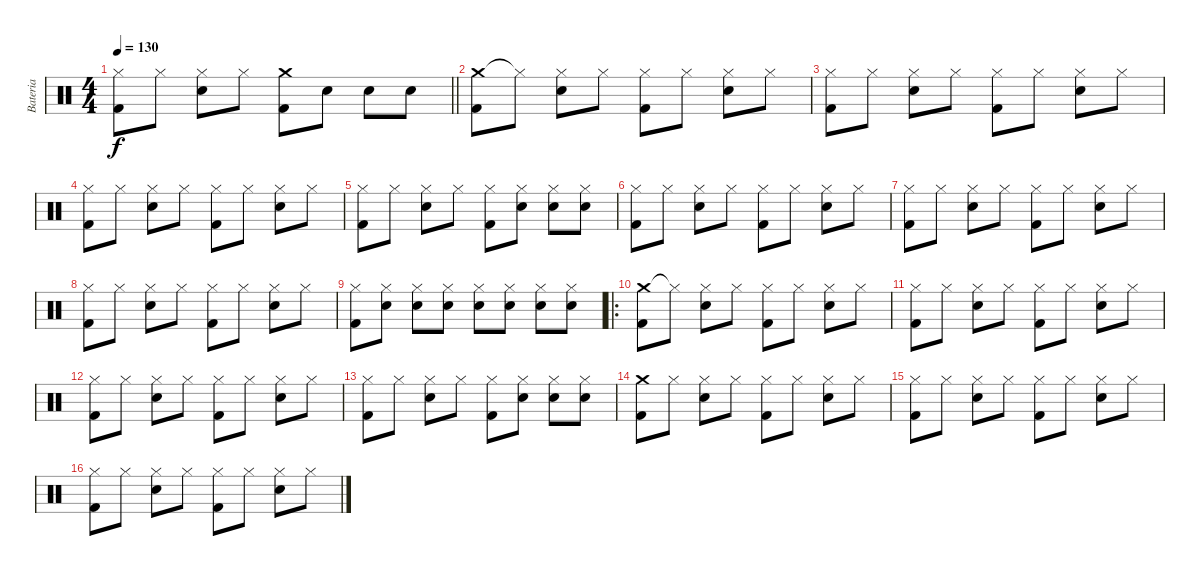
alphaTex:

\track ("Bateria" "Bateria") {instrument percussion}
\staff {score}
\articulation defaults
\ts (4 4)
\tempo 130
\clef neutral
\barLineRight lightlight
\ks c
("Hi-Hat (closed)" "Kick (hit) 2").8{dy f} "Hi-Hat (closed)".8 ("Hi-Hat (closed)" "Snare (hit) 2").8 "Hi-Hat (closed)".8 ("Crash medium (hit)" "Kick (hit) 2").8 "Snare (hit) 2".8 "Snare (hit) 2".8 "Snare (hit) 2".8 |
("Crash medium (hit)" "Kick (hit) 2").8 "Hi-Hat (closed)"{t}.8 ("Hi-Hat (closed)" "Snare (hit) 2").8 "Hi-Hat (closed)".8 ("Hi-Hat (closed)" "Kick (hit) 2").8 "Hi-Hat (closed)".8 ("Hi-Hat (closed)" "Snare (hit) 2").8 "Hi-Hat (closed)".8 |
("Hi-Hat (closed)" "Kick (hit) 2").8 "Hi-Hat (closed)".8 ("Hi-Hat (closed)" "Snare (hit) 2").8 "Hi-Hat (closed)".8 ("Hi-Hat (closed)" "Kick (hit) 2").8 "Hi-Hat (closed)".8 ("Hi-Hat (closed)" "Snare (hit) 2").8 "Hi-Hat (closed)".8 |
("Hi-Hat (closed)" "Kick (hit) 2").8 "Hi-Hat (closed)".8 ("Hi-Hat (closed)" "Snare (hit) 2").8 "Hi-Hat (closed)".8 ("Hi-Hat (closed)" "Kick (hit) 2").8 "Hi-Hat (closed)".8 ("Hi-Hat (closed)" "Snare (hit) 2").8 "Hi-Hat (closed)".8 |
("Hi-Hat (closed)" "Kick (hit) 2").8 "Hi-Hat (closed)".8 ("Hi-Hat (closed)" "Snare (hit) 2").8 "Hi-Hat (closed)".8 ("Hi-Hat (closed)" "Kick (hit) 2").8 ("Hi-Hat (closed)" "Snare (hit) 2").8 ("Hi-Hat (closed)" "Snare (hit) 2").8 ("Hi-Hat (closed)" "Snare (hit) 2").8 |
("Hi-Hat (closed)" "Kick (hit) 2").8 "Hi-Hat (closed)".8 ("Hi-Hat (closed)" "Snare (hit) 2").8 "Hi-Hat (closed)".8 ("Hi-Hat (closed)" "Kick (hit) 2").8 "Hi-Hat (closed)".8 ("Hi-Hat (closed)" "Snare (hit) 2").8 "Hi-Hat (closed)".8 |
("Hi-Hat (closed)" "Kick (hit) 2").8 "Hi-Hat (closed)".8 ("Hi-Hat (closed)" "Snare (hit) 2").8 "Hi-Hat (closed)".8 ("Hi-Hat (closed)" "Kick (hit) 2").8 "Hi-Hat (closed)".8 ("Hi-Hat (closed)" "Snare (hit) 2").8 "Hi-Hat (closed)".8 |
("Hi-Hat (closed)" "Kick (hit) 2").8 "Hi-Hat (closed)".8 ("Hi-Hat (closed)" "Snare (hit) 2").8 "Hi-Hat (closed)".8 ("Hi-Hat (closed)" "Kick (hit) 2").8 "Hi-Hat (closed)".8 ("Hi-Hat (closed)" "Snare (hit) 2").8 "Hi-Hat (closed)".8 |
("Hi-Hat (closed)" "Kick (hit) 2").8 ("Hi-Hat (closed)" "Snare (hit) 2").8 ("Hi-Hat (closed)" "Snare (hit) 2").8 ("Hi-Hat (closed)" "Snare (hit) 2").8 ("Hi-Hat (closed)" "Snare (hit) 2").8 ("Hi-Hat (closed)" "Snare (hit) 2").8 ("Hi-Hat (closed)" "Snare (hit) 2").8 ("Hi-Hat (closed)" "Snare (hit) 2").8 |
\ro
("Crash medium (hit)" "Kick (hit) 2").8 "Hi-Hat (closed)"{t}.8 ("Hi-Hat (closed)" "Snare (hit) 2").8 "Hi-Hat (closed)".8 ("Hi-Hat (closed)" "Kick (hit) 2").8 "Hi-Hat (closed)".8 ("Hi-Hat (closed)" "Snare (hit) 2").8 "Hi-Hat (closed)".8 |
("Hi-Hat (closed)" "Kick (hit) 2").8 "Hi-Hat (closed)".8 ("Hi-Hat (closed)" "Snare (hit) 2").8 "Hi-Hat (closed)".8 ("Hi-Hat (closed)" "Kick (hit) 2").8 "Hi-Hat (closed)".8 ("Hi-Hat (closed)" "Snare (hit) 2").8 "Hi-Hat (closed)".8 |
("Hi-Hat (closed)" "Kick (hit) 2").8 "Hi-Hat (closed)".8 ("Hi-Hat (closed)" "Snare (hit) 2").8 "Hi-Hat (closed)".8 ("Hi-Hat (closed)" "Kick (hit) 2").8 "Hi-Hat (closed)".8 ("Hi-Hat (closed)" "Snare (hit) 2").8 "Hi-Hat (closed)".8 |
("Hi-Hat (closed)" "Kick (hit) 2").8 "Hi-Hat (closed)".8 ("Hi-Hat (closed)" "Snare (hit) 2").8 "Hi-Hat (closed)".8 ("Hi-Hat (closed)" "Kick (hit) 2").8 ("Hi-Hat (closed)" "Snare (hit) 2").8 ("Hi-Hat (closed)" "Snare (hit) 2").8 ("Hi-Hat (closed)" "Snare (hit) 2").8 |
("Crash medium (hit)" "Kick (hit) 2").8 "Hi-Hat (closed)".8 ("Hi-Hat (closed)" "Snare (hit) 2").8 "Hi-Hat (closed)".8 ("Hi-Hat (closed)" "Kick (hit) 2").8 "Hi-Hat (closed)".8 ("Hi-Hat (closed)" "Snare (hit) 2").8 "Hi-Hat (closed)".8 |
("Hi-Hat (closed)" "Kick (hit) 2").8 "Hi-Hat (closed)".8 ("Hi-Hat (closed)" "Snare (hit) 2").8 "Hi-Hat (closed)".8 ("Hi-Hat (closed)" "Kick (hit) 2").8 "Hi-Hat (closed)".8 ("Hi-Hat (closed)" "Snare (hit) 2").8 "Hi-Hat (closed)".8 |
("Hi-Hat (closed)" "Kick (hit) 2").8 "Hi-Hat (closed)".8 ("Hi-Hat (closed)" "Snare (hit) 2").8 "Hi-Hat (closed)".8 ("Hi-Hat (closed)" "Kick (hit) 2").8 "Hi-Hat (closed)".8 ("Hi-Hat (closed)" "Snare (hit) 2").8 "Hi-Hat (closed)".8
